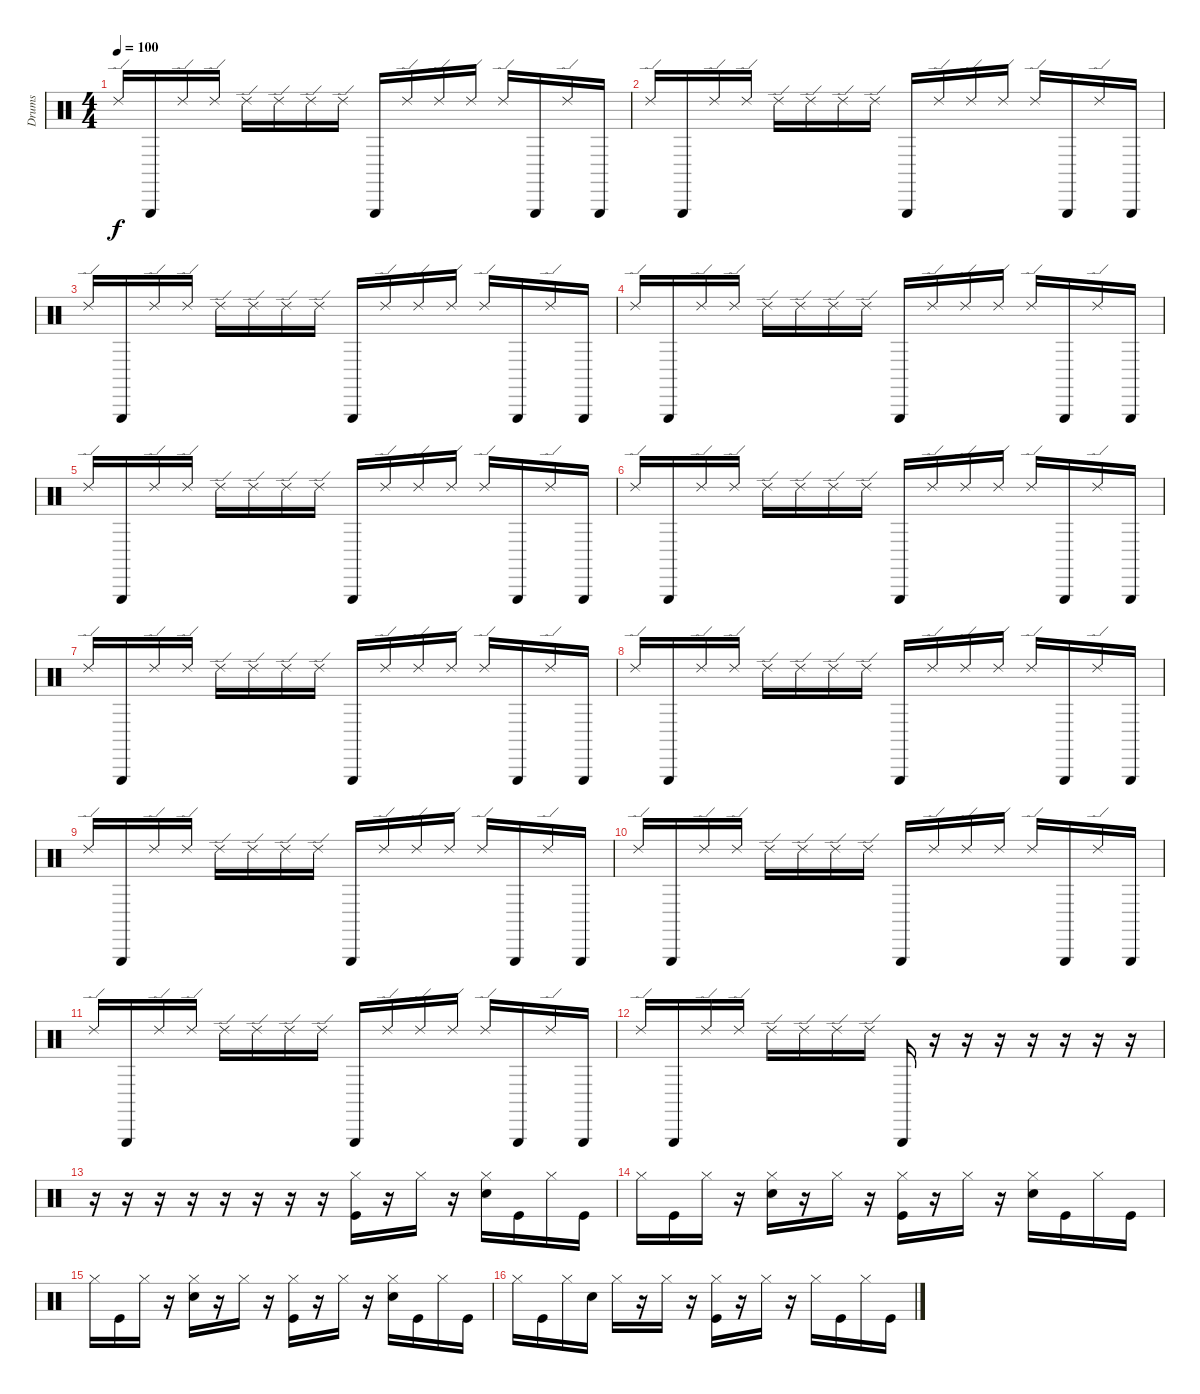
\track ("Drums" "Drums") {instrument percussion}
\staff {score}
\articulation defaults
\ts (4 4)
\tempo 100
\clef neutral
\ks c "Ride (edge) 2".16{dy f} "Triangle (hit)".16 "Ride (edge) 2".16 "Ride (edge) 2".16 "Ride (edge) 2".16 "Ride (edge) 2".16 "Ride (edge) 2".16 "Ride (edge) 2".16 "Triangle (hit)".16 "Ride (edge) 2".16 "Ride (edge) 2".16 "Ride (edge) 2".16 "Ride (edge) 2".16 "Triangle (hit)".16 "Ride (edge) 2".16 "Triangle (hit)".16
|
"Ride (edge) 2".16 "Triangle (hit)".16 "Ride (edge) 2".16 "Ride (edge) 2".16 "Ride (edge) 2".16 "Ride (edge) 2".16 "Ride (edge) 2".16 "Ride (edge) 2".16 "Triangle (hit)".16 "Ride (edge) 2".16 "Ride (edge) 2".16 "Ride (edge) 2".16 "Ride (edge) 2".16 "Triangle (hit)".16 "Ride (edge) 2".16 "Triangle (hit)".16 |
"Ride (edge) 2".16 "Triangle (hit)".16 "Ride (edge) 2".16 "Ride (edge) 2".16 "Ride (edge) 2".16 "Ride (edge) 2".16 "Ride (edge) 2".16 "Ride (edge) 2".16 "Triangle (hit)".16 "Ride (edge) 2".16 "Ride (edge) 2".16 "Ride (edge) 2".16 "Ride (edge) 2".16 "Triangle (hit)".16 "Ride (edge) 2".16 "Triangle (hit)".16 |
"Ride (edge) 2".16 "Triangle (hit)".16 "Ride (edge) 2".16 "Ride (edge) 2".16 "Ride (edge) 2".16 "Ride (edge) 2".16 "Ride (edge) 2".16 "Ride (edge) 2".16 "Triangle (hit)".16 "Ride (edge) 2".16 "Ride (edge) 2".16 "Ride (edge) 2".16 "Ride (edge) 2".16 "Triangle (hit)".16 "Ride (edge) 2".16 "Triangle (hit)".16 |
"Ride (edge) 2".16 "Triangle (hit)".16 "Ride (edge) 2".16 "Ride (edge) 2".16 "Ride (edge) 2".16 "Ride (edge) 2".16 "Ride (edge) 2".16 "Ride (edge) 2".16 "Triangle (hit)".16 "Ride (edge) 2".16 "Ride (edge) 2".16 "Ride (edge) 2".16 "Ride (edge) 2".16 "Triangle (hit)".16 "Ride (edge) 2".16 "Triangle (hit)".16 |
"Ride (edge) 2".16 "Triangle (hit)".16 "Ride (edge) 2".16 "Ride (edge) 2".16 "Ride (edge) 2".16 "Ride (edge) 2".16 "Ride (edge) 2".16 "Ride (edge) 2".16 "Triangle (hit)".16 "Ride (edge) 2".16 "Ride (edge) 2".16 "Ride (edge) 2".16 "Ride (edge) 2".16 "Triangle (hit)".16 "Ride (edge) 2".16 "Triangle (hit)".16 |
"Ride (edge) 2".16 "Triangle (hit)".16 "Ride (edge) 2".16 "Ride (edge) 2".16 "Ride (edge) 2".16 "Ride (edge) 2".16 "Ride (edge) 2".16 "Ride (edge) 2".16 "Triangle (hit)".16 "Ride (edge) 2".16 "Ride (edge) 2".16 "Ride (edge) 2".16 "Ride (edge) 2".16 "Triangle (hit)".16 "Ride (edge) 2".16 "Triangle (hit)".16 |
"Ride (edge) 2".16 "Triangle (hit)".16 "Ride (edge) 2".16 "Ride (edge) 2".16 "Ride (edge) 2".16 "Ride (edge) 2".16 "Ride (edge) 2".16 "Ride (edge) 2".16 "Triangle (hit)".16 "Ride (edge) 2".16 "Ride (edge) 2".16 "Ride (edge) 2".16 "Ride (edge) 2".16 "Triangle (hit)".16 "Ride (edge) 2".16 "Triangle (hit)".16 |
"Ride (edge) 2".16 "Triangle (hit)".16 "Ride (edge) 2".16 "Ride (edge) 2".16 "Ride (edge) 2".16 "Ride (edge) 2".16 "Ride (edge) 2".16 "Ride (edge) 2".16 "Triangle (hit)".16 "Ride (edge) 2".16 "Ride (edge) 2".16 "Ride (edge) 2".16 "Ride (edge) 2".16 "Triangle (hit)".16 "Ride (edge) 2".16 "Triangle (hit)".16 |
"Ride (edge) 2".16 "Triangle (hit)".16 "Ride (edge) 2".16 "Ride (edge) 2".16 "Ride (edge) 2".16 "Ride (edge) 2".16 "Ride (edge) 2".16 "Ride (edge) 2".16 "Triangle (hit)".16 "Ride (edge) 2".16 "Ride (edge) 2".16 "Ride (edge) 2".16 "Ride (edge) 2".16 "Triangle (hit)".16 "Ride (edge) 2".16 "Triangle (hit)".16 |
"Ride (edge) 2".16 "Triangle (hit)".16 "Ride (edge) 2".16 "Ride (edge) 2".16 "Ride (edge) 2".16 "Ride (edge) 2".16 "Ride (edge) 2".16 "Ride (edge) 2".16 "Triangle (hit)".16 "Ride (edge) 2".16 "Ride (edge) 2".16 "Ride (edge) 2".16 "Ride (edge) 2".16 "Triangle (hit)".16 "Ride (edge) 2".16 "Triangle (hit)".16 |
"Ride (edge) 2".16 "Triangle (hit)".16 "Ride (edge) 2".16 "Ride (edge) 2".16 "Ride (edge) 2".16 "Ride (edge) 2".16 "Ride (edge) 2".16 "Ride (edge) 2".16 "Triangle (hit)".16 r.16 r.16 r.16 r.16 r.16 r.16 r.16 |
r.16 r.16 r.16 r.16 r.16 r.16 r.16 r.16 ("Hi-Hat (closed)" "Kick (hit)").16 r.16 "Hi-Hat (closed)".16 r.16 ("Hi-Hat (closed)" "Electric Snare (hit)").16 "Kick (hit)".16 "Hi-Hat (closed)".16 "Kick (hit)".16 |
"Hi-Hat (closed)".16 "Kick (hit)".16 "Hi-Hat (closed)".16 r.16 ("Hi-Hat (closed)" "Electric Snare (hit)").16 r.16 "Hi-Hat (closed)".16 r.16 ("Hi-Hat (closed)" "Kick (hit)").16 r.16 "Hi-Hat (closed)".16 r.16 ("Hi-Hat (closed)" "Electric Snare (hit)").16 "Kick (hit)".16 "Hi-Hat (closed)".16 "Kick (hit)".16 |
"Hi-Hat (closed)".16 "Kick (hit)".16 "Hi-Hat (closed)".16 r.16 ("Hi-Hat (closed)" "Electric Snare (hit)").16 r.16 "Hi-Hat (closed)".16 r.16 ("Hi-Hat (closed)" "Kick (hit)").16 r.16 "Hi-Hat (closed)".16 r.16 ("Hi-Hat (closed)" "Electric Snare (hit)").16 "Kick (hit)".16 "Hi-Hat (closed)".16 "Kick (hit)".16 |
"Hi-Hat (closed)".16 "Kick (hit)".16 "Hi-Hat (closed)".16 "Electric Snare (hit)".16 "Hi-Hat (closed)".16 r.16 "Hi-Hat (closed)".16 r.16 ("Hi-Hat (closed)" "Kick (hit)").16 r.16 "Hi-Hat (closed)".16 r.16 "Hi-Hat (closed)".16 "Kick (hit)".16 "Hi-Hat (closed)".16 "Kick (hit)".16
